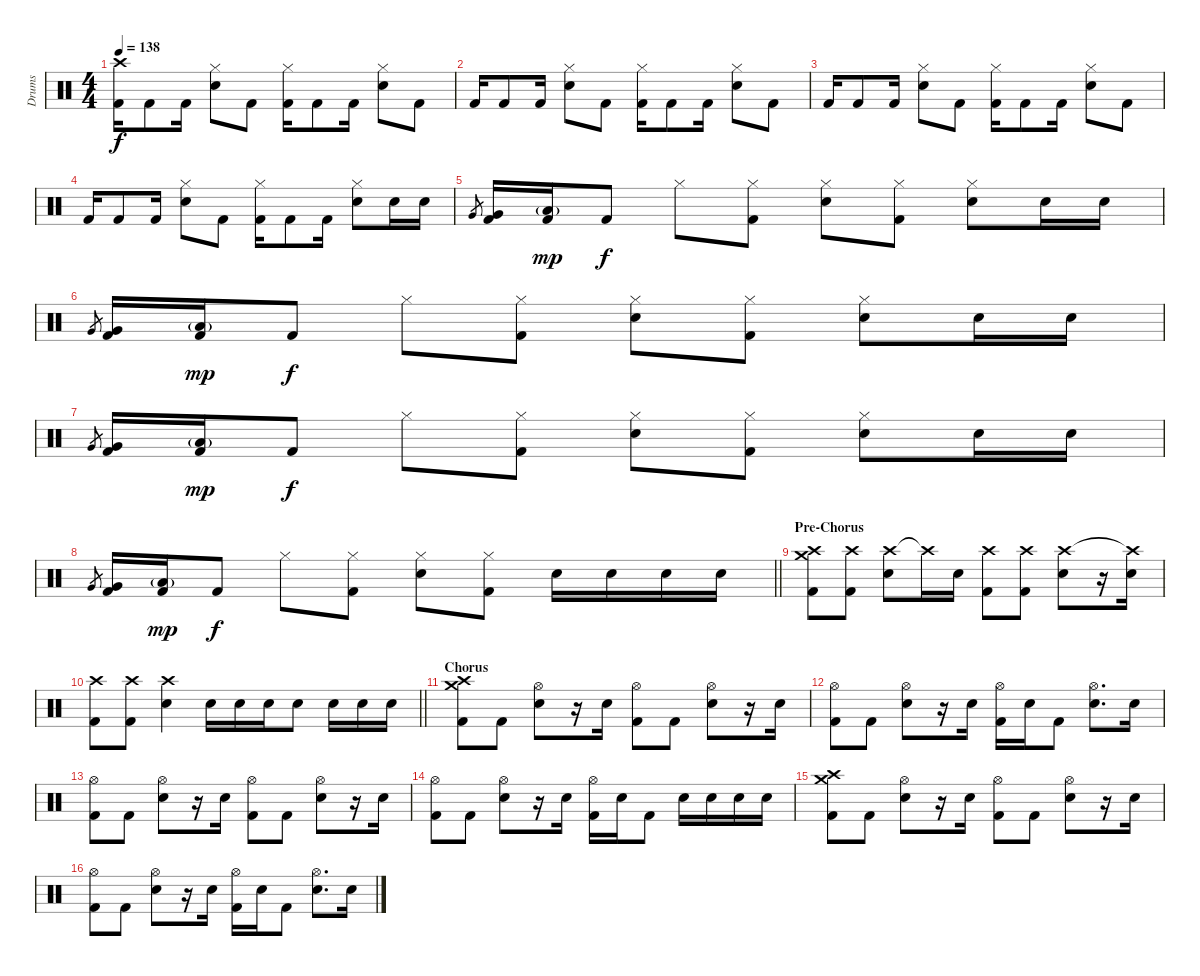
\track ("Drums" "Drums") {instrument percussion}
\staff {score}
\articulation defaults
\ts (4 4)
\tempo 138
\clef neutral
\ks c
("Crash high (hit)" "Kick (hit) 2").16{dy f} "Kick (hit) 2".8 "Kick (hit) 2".16 ("Electric Snare (hit)" "Hi-Hat (closed)").8 "Kick (hit) 2".8 ("Hi-Hat (closed)" "Kick (hit) 2").16 "Kick (hit) 2".8 "Kick (hit) 2".16 ("Electric Snare (hit)" "Hi-Hat (closed)").8 "Kick (hit) 2".8 |
"Kick (hit) 2".16 "Kick (hit) 2".8 "Kick (hit) 2".16 ("Electric Snare (hit)" "Hi-Hat (closed)").8 "Kick (hit) 2".8 ("Hi-Hat (closed)" "Kick (hit) 2").16 "Kick (hit) 2".8 "Kick (hit) 2".16 ("Electric Snare (hit)" "Hi-Hat (closed)").8 "Kick (hit) 2".8 |
"Kick (hit) 2".16 "Kick (hit) 2".8 "Kick (hit) 2".16 ("Electric Snare (hit)" "Hi-Hat (closed)").8 "Kick (hit) 2".8 ("Hi-Hat (closed)" "Kick (hit) 2").16 "Kick (hit) 2".8 "Kick (hit) 2".16 ("Electric Snare (hit)" "Hi-Hat (closed)").8 "Kick (hit) 2".8 |
"Kick (hit) 2".16 "Kick (hit) 2".8 "Kick (hit) 2".16 ("Electric Snare (hit)" "Hi-Hat (closed)").8 "Kick (hit) 2".8 ("Hi-Hat (closed)" "Kick (hit) 2").16 "Kick (hit) 2".8 "Kick (hit) 2".16 ("Electric Snare (hit)" "Hi-Hat (closed)").8 "Electric Snare (hit)".16 "Electric Snare (hit)".16 |
"Very Low Tom (hit)".8{gr} ("Very Low Tom (hit)" "Kick (hit) 2").16 ("Low Floor Tom (hit)"{g} "Kick (hit) 2").16{dy mp} "Kick (hit) 2".8{dy f} "Hi-Hat (closed)".8 ("Hi-Hat (closed)" "Kick (hit) 2").8 ("Electric Snare (hit)" "Hi-Hat (closed)").8 ("Hi-Hat (closed)" "Kick (hit) 2").8 ("Electric Snare (hit)" "Hi-Hat (closed)").8 "Electric Snare (hit)".16 "Electric Snare (hit)".16 |
"Very Low Tom (hit)".8{gr} ("Very Low Tom (hit)" "Kick (hit) 2").16 ("Low Floor Tom (hit)"{g} "Kick (hit) 2").16{dy mp} "Kick (hit) 2".8{dy f} "Hi-Hat (closed)".8 ("Hi-Hat (closed)" "Kick (hit) 2").8 ("Electric Snare (hit)" "Hi-Hat (closed)").8 ("Hi-Hat (closed)" "Kick (hit) 2").8 ("Electric Snare (hit)" "Hi-Hat (closed)").8 "Electric Snare (hit)".16 "Electric Snare (hit)".16 |
"Very Low Tom (hit)".8{gr} ("Very Low Tom (hit)" "Kick (hit) 2").16 ("Low Floor Tom (hit)"{g} "Kick (hit) 2").16{dy mp} "Kick (hit) 2".8{dy f} "Hi-Hat (closed)".8 ("Hi-Hat (closed)" "Kick (hit) 2").8 ("Electric Snare (hit)" "Hi-Hat (closed)").8 ("Hi-Hat (closed)" "Kick (hit) 2").8 ("Electric Snare (hit)" "Hi-Hat (closed)").8 "Electric Snare (hit)".16 "Electric Snare (hit)".16 |
\barLineRight lightlight "Very Low Tom (hit)".8{gr}
("Very Low Tom (hit)" "Kick (hit) 2").16 ("Low Floor Tom (hit)"{g} "Kick (hit) 2").16{dy mp} "Kick (hit) 2".8{dy f} "Hi-Hat (closed)".8 ("Hi-Hat (closed)" "Kick (hit) 2").8 ("Electric Snare (hit)" "Hi-Hat (closed)").8 ("Hi-Hat (closed)" "Kick (hit) 2").8 "Electric Snare (hit)".16 "Electric Snare (hit)".16 "Electric Snare (hit)".16 "Electric Snare (hit)".16 |
\section ("" "Pre-Chorus")
("Crash high (hit)" "Crash medium (hit)" "Kick (hit) 2").8 ("Crash high (hit)" "Kick (hit) 2").8 ("Crash high (hit)" "Electric Snare (hit)").8 "Crash high (hit)"{t}.16 "Electric Snare (hit)".16 ("Crash high (hit)" "Kick (hit) 2").8 ("Crash high (hit)" "Kick (hit) 2").8 ("Crash high (hit)" "Electric Snare (hit)").8 r.16 ("Crash high (hit)"{t} "Electric Snare (hit)").16 |
\barLineRight lightlight
("Crash high (hit)" "Kick (hit) 2").8 ("Crash high (hit)" "Kick (hit) 2").8 ("Crash high (hit)" "Electric Snare (hit)").4 "Electric Snare (hit)".16 "Electric Snare (hit)".16 "Electric Snare (hit)".16 "Electric Snare (hit)".8 "Electric Snare (hit)".16 "Electric Snare (hit)".16 "Electric Snare (hit)".16 |
\section ("" "Chorus")
("Crash high (hit)" "Crash medium (hit)" "Kick (hit) 2").8 "Kick (hit) 2".8 ("Hi-Hat (open)" "Electric Snare (hit)").8 r.16 "Electric Snare (hit)".16 ("Hi-Hat (open)" "Kick (hit) 2").8 "Kick (hit) 2".8 ("Hi-Hat (open)" "Electric Snare (hit)").8 r.16 "Electric Snare (hit)".16 |
("Hi-Hat (open)" "Kick (hit) 2").8 "Kick (hit) 2".8 ("Hi-Hat (open)" "Electric Snare (hit)").8 r.16 "Electric Snare (hit)".16 ("Hi-Hat (open)" "Kick (hit) 2").16 "Electric Snare (hit)".16 "Kick (hit) 2".8 ("Hi-Hat (open)" "Electric Snare (hit)").8{d} "Electric Snare (hit)".16 |
("Hi-Hat (open)" "Kick (hit) 2").8 "Kick (hit) 2".8 ("Hi-Hat (open)" "Electric Snare (hit)").8 r.16 "Electric Snare (hit)".16 ("Hi-Hat (open)" "Kick (hit) 2").8 "Kick (hit) 2".8 ("Hi-Hat (open)" "Electric Snare (hit)").8 r.16 "Electric Snare (hit)".16 |
("Hi-Hat (open)" "Kick (hit) 2").8 "Kick (hit) 2".8 ("Hi-Hat (open)" "Electric Snare (hit)").8 r.16 "Electric Snare (hit)".16 ("Hi-Hat (open)" "Kick (hit) 2").16 "Electric Snare (hit)".16 "Kick (hit) 2".8 "Electric Snare (hit)".16 "Electric Snare (hit)".16 "Electric Snare (hit)".16 "Electric Snare (hit)".16 |
("Crash high (hit)" "Crash medium (hit)" "Kick (hit) 2").8 "Kick (hit) 2".8 ("Hi-Hat (open)" "Electric Snare (hit)").8 r.16 "Electric Snare (hit)".16 ("Hi-Hat (open)" "Kick (hit) 2").8 "Kick (hit) 2".8 ("Hi-Hat (open)" "Electric Snare (hit)").8 r.16 "Electric Snare (hit)".16 |
("Hi-Hat (open)" "Kick (hit) 2").8 "Kick (hit) 2".8 ("Hi-Hat (open)" "Electric Snare (hit)").8 r.16 "Electric Snare (hit)".16 ("Hi-Hat (open)" "Kick (hit) 2").16 "Electric Snare (hit)".16 "Kick (hit) 2".8 ("Hi-Hat (open)" "Electric Snare (hit)").8{d} "Electric Snare (hit)".16
